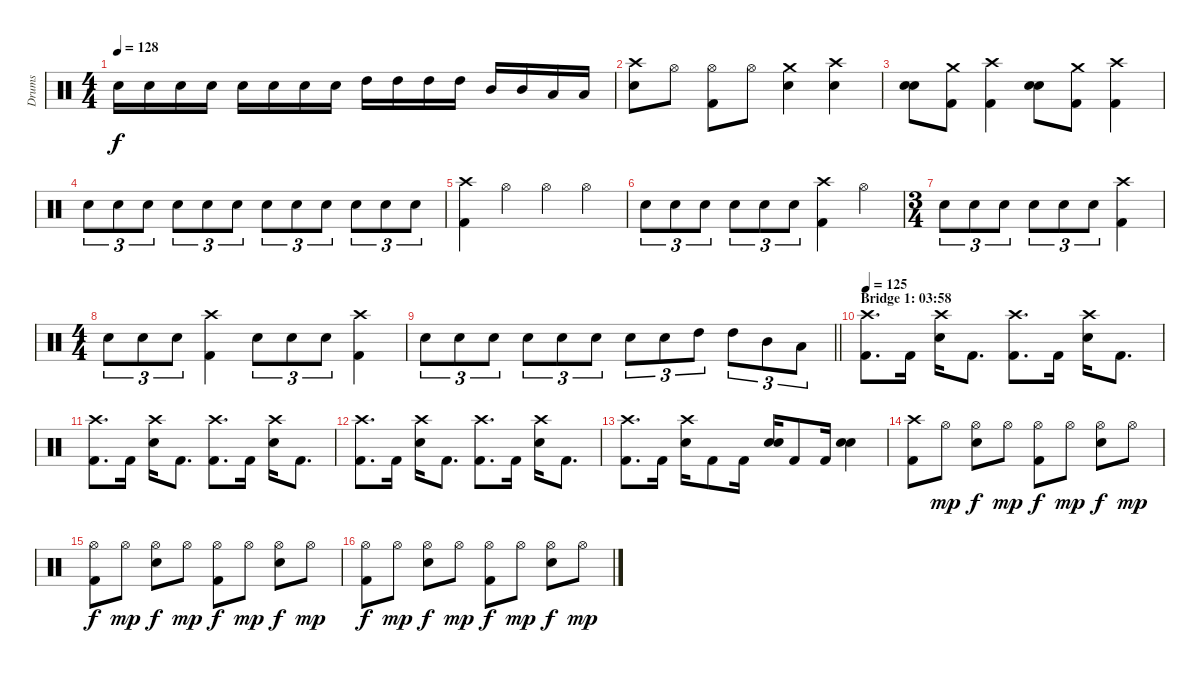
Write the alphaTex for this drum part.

\track ("Drums" "Drums") {instrument percussion}
\staff {score}
\articulation defaults
\ts (4 4)
\tempo 128
\clef neutral
\ks c "Electric Snare (hit)".16{dy f} "Electric Snare (hit)".16 "Electric Snare (hit)".16 "Electric Snare (hit)".16 "Electric Snare (hit)".16 "Electric Snare (hit)".16 "Electric Snare (hit)".16 "Electric Snare (hit)".16 "High Tom (hit)".16 "High Tom (hit)".16 "High Tom (hit)".16 "High Tom (hit)".16 "Mid Tom (hit)".16 "Mid Tom (hit)".16 "Low Tom (hit)".16 "Low Tom (hit)".16
|
("Crash high (hit)" "Electric Snare (hit)").8 "Hi-Hat (open)".8 ("Hi-Hat (open)" "Kick (hit) 2").8 "Hi-Hat (open)".8 ("Crash medium (hit)" "Electric Snare (hit)").4 ("Crash high (hit)" "Electric Snare (hit)").4 |
("Electric Snare (hit)" "Electric Snare (hit)").8{bd 60} ("Crash medium (hit)" "Kick (hit) 2").8 ("Crash high (hit)" "Kick (hit) 2").4 ("Electric Snare (hit)" "Electric Snare (hit)").8{bd 60} ("Crash medium (hit)" "Kick (hit) 2").8 ("Crash high (hit)" "Kick (hit) 2").4 |
"Electric Snare (hit)".8{tu (3 2)} "Electric Snare (hit)".8{tu (3 2)} "Electric Snare (hit)".8{tu (3 2)} "Electric Snare (hit)".8{tu (3 2)} "Electric Snare (hit)".8{tu (3 2)} "Electric Snare (hit)".8{tu (3 2)} "Electric Snare (hit)".8{tu (3 2)} "Electric Snare (hit)".8{tu (3 2)} "Electric Snare (hit)".8{tu (3 2)} "Electric Snare (hit)".8{tu (3 2)} "Electric Snare (hit)".8{tu (3 2)} "Electric Snare (hit)".8{tu (3 2)} |
("Crash high (hit)" "Kick (hit) 2").4 "Hi-Hat (open)".4 "Hi-Hat (open)".4 "Hi-Hat (open)".4 |
"Electric Snare (hit)".8{tu (3 2)} "Electric Snare (hit)".8{tu (3 2)} "Electric Snare (hit)".8{tu (3 2)} "Electric Snare (hit)".8{tu (3 2)} "Electric Snare (hit)".8{tu (3 2)} "Electric Snare (hit)".8{tu (3 2)} ("Crash high (hit)" "Kick (hit) 2").4 "Hi-Hat (open)".4 |
\ts (3 4)
"Electric Snare (hit)".8{tu (3 2)} "Electric Snare (hit)".8{tu (3 2)} "Electric Snare (hit)".8{tu (3 2)} "Electric Snare (hit)".8{tu (3 2)} "Electric Snare (hit)".8{tu (3 2)} "Electric Snare (hit)".8{tu (3 2)} ("Crash high (hit)" "Kick (hit) 2").4 |
\ts (4 4)
"Electric Snare (hit)".8{tu (3 2)} "Electric Snare (hit)".8{tu (3 2)} "Electric Snare (hit)".8{tu (3 2)} ("Crash high (hit)" "Kick (hit) 2").4 "Electric Snare (hit)".8{tu (3 2)} "Electric Snare (hit)".8{tu (3 2)} "Electric Snare (hit)".8{tu (3 2)} ("Crash high (hit)" "Kick (hit) 2").4 |
\barLineRight lightlight "Electric Snare (hit)".8{tu (3 2)} "Electric Snare (hit)".8{tu (3 2)} "Electric Snare (hit)".8{tu (3 2)} "Electric Snare (hit)".8{tu (3 2)} "Electric Snare (hit)".8{tu (3 2)} "Electric Snare (hit)".8{tu (3 2)} "Electric Snare (hit)".8{tu (3 2)} "Electric Snare (hit)".8{tu (3 2)} "High Tom (hit)".8{tu (3 2)} "High Tom (hit)".8{tu (3 2)} "Mid Tom (hit)".8{tu (3 2)} "Low Tom (hit)".8{tu (3 2)}
|
\section ("" "Bridge 1: 03:58")
\tempo 125
("Crash high (hit)" "Kick (hit) 2").8{d} "Kick (hit) 2".16 ("Crash high (hit)" "Electric Snare (hit)").16 "Kick (hit) 2".8{d} ("Crash high (hit)" "Kick (hit) 2").8{d} "Kick (hit) 2".16 ("Crash high (hit)" "Electric Snare (hit)").16 "Kick (hit) 2".8{d} |
("Crash high (hit)" "Kick (hit) 2").8{d} "Kick (hit) 2".16 ("Crash high (hit)" "Electric Snare (hit)").16 "Kick (hit) 2".8{d} ("Crash high (hit)" "Kick (hit) 2").8{d} "Kick (hit) 2".16 ("Crash high (hit)" "Electric Snare (hit)").16 "Kick (hit) 2".8{d} |
("Crash high (hit)" "Kick (hit) 2").8{d} "Kick (hit) 2".16 ("Crash high (hit)" "Electric Snare (hit)").16 "Kick (hit) 2".8{d} ("Crash high (hit)" "Kick (hit) 2").8{d} "Kick (hit) 2".16 ("Crash high (hit)" "Electric Snare (hit)").16 "Kick (hit) 2".8{d} |
("Crash high (hit)" "Kick (hit) 2").8{d} "Kick (hit) 2".16 ("Crash high (hit)" "Electric Snare (hit)").16 "Kick (hit) 2".8 "Kick (hit) 2".16 ("Electric Snare (hit)" "Electric Snare (hit)").16{bd 120} "Kick (hit) 2".8 "Kick (hit) 2".16 ("Electric Snare (hit)" "Electric Snare (hit)").4{bd 120} |
("Crash high (hit)" "Kick (hit) 2").8 "Hi-Hat (open)".8{dy mp} ("Hi-Hat (open)" "Electric Snare (hit)").8{dy f} "Hi-Hat (open)".8{dy mp} ("Hi-Hat (open)" "Kick (hit) 2").8{dy f} "Hi-Hat (open)".8{dy mp} ("Hi-Hat (open)" "Electric Snare (hit)").8{dy f} "Hi-Hat (open)".8{dy mp} |
("Hi-Hat (open)" "Kick (hit) 2").8{dy f} "Hi-Hat (open)".8{dy mp} ("Hi-Hat (open)" "Electric Snare (hit)").8{dy f} "Hi-Hat (open)".8{dy mp} ("Hi-Hat (open)" "Kick (hit) 2").8{dy f} "Hi-Hat (open)".8{dy mp} ("Hi-Hat (open)" "Electric Snare (hit)").8{dy f} "Hi-Hat (open)".8{dy mp} |
("Hi-Hat (open)" "Kick (hit) 2").8{dy f} "Hi-Hat (open)".8{dy mp} ("Hi-Hat (open)" "Electric Snare (hit)").8{dy f} "Hi-Hat (open)".8{dy mp} ("Hi-Hat (open)" "Kick (hit) 2").8{dy f} "Hi-Hat (open)".8{dy mp} ("Hi-Hat (open)" "Electric Snare (hit)").8{dy f} "Hi-Hat (open)".8{dy mp}
